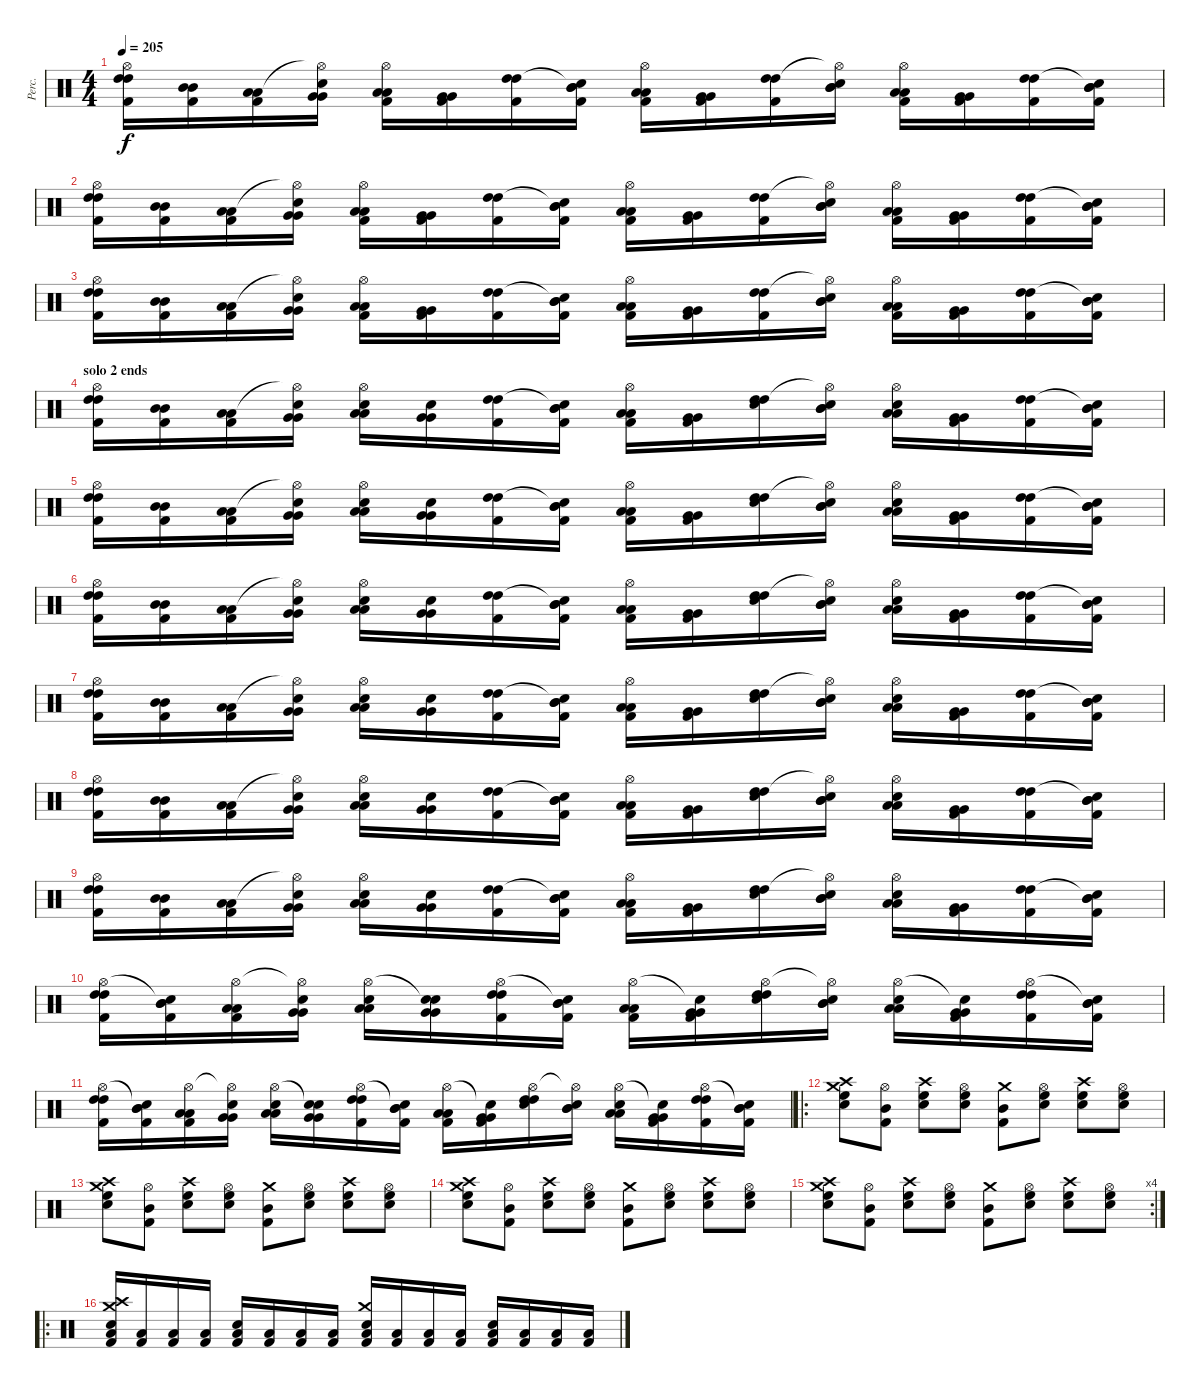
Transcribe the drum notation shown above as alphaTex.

\track ("Perc." "Perc.") {instrument percussion}
\staff {score}
\articulation defaults
\ts (4 4)
\tempo 205
\clef neutral
\ks c
("Hi-Hat (open)" "High Tom (hit)" "High Tom (hit)" "Kick (hit) 2").16{dy f} ("Mid Tom (hit)" "Mid Tom (hit)" "Kick (hit) 2").16 ("Low Tom (hit)" "Low Tom (hit)" "Kick (hit) 2").16 ("Hi-Hat (open)"{t} "Very Low Tom (hit)" "Very Low Tom (hit)" "Snare (hit) 2").16 ("Hi-Hat (open)" "Low Tom (hit)" "Low Tom (hit)" "Kick (hit) 2").16 ("Very Low Tom (hit)" "Very Low Tom (hit)" "Kick (hit) 2").16 ("High Tom (hit)" "High Tom (hit)" "Kick (hit) 2").16 ("Snare (hit)"{t} "Mid Tom (hit)" "Mid Tom (hit)" "Kick (hit) 2").16 ("Hi-Hat (open)" "Low Tom (hit)" "Low Tom (hit)" "Kick (hit) 2").16 ("Very Low Tom (hit)" "Very Low Tom (hit)" "Kick (hit) 2").16 ("High Tom (hit)" "High Tom (hit)" "Kick (hit) 2").16 ("Hi-Hat (open)"{t} "Mid Tom (hit)" "Mid Tom (hit)" "Snare (hit) 2").16 ("Hi-Hat (open)" "Low Tom (hit)" "Low Tom (hit)" "Kick (hit) 2").16 ("Very Low Tom (hit)" "Very Low Tom (hit)" "Kick (hit) 2").16 ("High Tom (hit)" "High Tom (hit)" "Kick (hit) 2").16 ("Snare (hit)"{t} "Mid Tom (hit)" "Mid Tom (hit)" "Kick (hit) 2").16 |
("Hi-Hat (open)" "High Tom (hit)" "High Tom (hit)" "Kick (hit) 2").16 ("Mid Tom (hit)" "Mid Tom (hit)" "Kick (hit) 2").16 ("Low Tom (hit)" "Low Tom (hit)" "Kick (hit) 2").16 ("Hi-Hat (open)"{t} "Very Low Tom (hit)" "Very Low Tom (hit)" "Snare (hit) 2").16 ("Hi-Hat (open)" "Low Tom (hit)" "Low Tom (hit)" "Kick (hit) 2").16 ("Very Low Tom (hit)" "Very Low Tom (hit)" "Kick (hit) 2").16 ("High Tom (hit)" "High Tom (hit)" "Kick (hit) 2").16 ("Snare (hit)"{t} "Mid Tom (hit)" "Mid Tom (hit)" "Kick (hit) 2").16 ("Hi-Hat (open)" "Low Tom (hit)" "Low Tom (hit)" "Kick (hit) 2").16 ("Very Low Tom (hit)" "Very Low Tom (hit)" "Kick (hit) 2").16 ("High Tom (hit)" "High Tom (hit)" "Kick (hit) 2").16 ("Hi-Hat (open)"{t} "Mid Tom (hit)" "Mid Tom (hit)" "Snare (hit) 2").16 ("Hi-Hat (open)" "Low Tom (hit)" "Low Tom (hit)" "Kick (hit) 2").16 ("Very Low Tom (hit)" "Very Low Tom (hit)" "Kick (hit) 2").16 ("High Tom (hit)" "High Tom (hit)" "Kick (hit) 2").16 ("Snare (hit)"{t} "Mid Tom (hit)" "Mid Tom (hit)" "Kick (hit) 2").16 |
("Hi-Hat (open)" "High Tom (hit)" "High Tom (hit)" "Kick (hit) 2").16 ("Mid Tom (hit)" "Mid Tom (hit)" "Kick (hit) 2").16 ("Low Tom (hit)" "Low Tom (hit)" "Kick (hit) 2").16 ("Hi-Hat (open)"{t} "Very Low Tom (hit)" "Very Low Tom (hit)" "Snare (hit) 2").16 ("Hi-Hat (open)" "Low Tom (hit)" "Low Tom (hit)" "Kick (hit) 2").16 ("Very Low Tom (hit)" "Very Low Tom (hit)" "Kick (hit) 2").16 ("High Tom (hit)" "High Tom (hit)" "Kick (hit) 2").16 ("Snare (hit)"{t} "Mid Tom (hit)" "Mid Tom (hit)" "Kick (hit) 2").16 ("Hi-Hat (open)" "Low Tom (hit)" "Low Tom (hit)" "Kick (hit) 2").16 ("Very Low Tom (hit)" "Very Low Tom (hit)" "Kick (hit) 2").16 ("High Tom (hit)" "High Tom (hit)" "Kick (hit) 2").16 ("Hi-Hat (open)"{t} "Mid Tom (hit)" "Mid Tom (hit)" "Snare (hit) 2").16 ("Hi-Hat (open)" "Low Tom (hit)" "Low Tom (hit)" "Kick (hit) 2").16 ("Very Low Tom (hit)" "Very Low Tom (hit)" "Kick (hit) 2").16 ("High Tom (hit)" "High Tom (hit)" "Kick (hit) 2").16 ("Snare (hit)"{t} "Mid Tom (hit)" "Mid Tom (hit)" "Kick (hit) 2").16 |
\section ("" "solo 2 ends")
("Hi-Hat (open)" "High Tom (hit)" "High Tom (hit)" "Kick (hit) 2").16 ("Mid Tom (hit)" "Mid Tom (hit)" "Kick (hit) 2").16 ("Low Tom (hit)" "Low Tom (hit)" "Kick (hit) 2").16 ("Hi-Hat (open)"{t} "Very Low Tom (hit)" "Very Low Tom (hit)" "Snare (hit) 2").16 ("Hi-Hat (open)" "Low Tom (hit)" "Low Tom (hit)" "Snare (hit) 2").16 ("Very Low Tom (hit)" "Very Low Tom (hit)" "Snare (hit) 2").16 ("High Tom (hit)" "High Tom (hit)" "Kick (hit) 2").16 ("Snare (hit)"{t} "Mid Tom (hit)" "Mid Tom (hit)" "Kick (hit) 2").16 ("Hi-Hat (open)" "Low Tom (hit)" "Low Tom (hit)" "Kick (hit) 2").16 ("Very Low Tom (hit)" "Very Low Tom (hit)" "Kick (hit) 2").16 ("High Tom (hit)" "High Tom (hit)" "Snare (hit) 2").16 ("Hi-Hat (open)"{t} "Mid Tom (hit)" "Mid Tom (hit)" "Snare (hit) 2").16 ("Hi-Hat (open)" "Low Tom (hit)" "Low Tom (hit)" "Snare (hit) 2").16 ("Very Low Tom (hit)" "Very Low Tom (hit)" "Kick (hit) 2").16 ("High Tom (hit)" "High Tom (hit)" "Kick (hit) 2").16 ("Snare (hit)"{t} "Mid Tom (hit)" "Mid Tom (hit)" "Kick (hit) 2").16 |
("Hi-Hat (open)" "High Tom (hit)" "High Tom (hit)" "Kick (hit) 2").16 ("Mid Tom (hit)" "Mid Tom (hit)" "Kick (hit) 2").16 ("Low Tom (hit)" "Low Tom (hit)" "Kick (hit) 2").16 ("Hi-Hat (open)"{t} "Very Low Tom (hit)" "Very Low Tom (hit)" "Snare (hit) 2").16 ("Hi-Hat (open)" "Low Tom (hit)" "Low Tom (hit)" "Snare (hit) 2").16 ("Very Low Tom (hit)" "Very Low Tom (hit)" "Snare (hit) 2").16 ("High Tom (hit)" "High Tom (hit)" "Kick (hit) 2").16 ("Snare (hit)"{t} "Mid Tom (hit)" "Mid Tom (hit)" "Kick (hit) 2").16 ("Hi-Hat (open)" "Low Tom (hit)" "Low Tom (hit)" "Kick (hit) 2").16 ("Very Low Tom (hit)" "Very Low Tom (hit)" "Kick (hit) 2").16 ("High Tom (hit)" "High Tom (hit)" "Snare (hit) 2").16 ("Hi-Hat (open)"{t} "Mid Tom (hit)" "Mid Tom (hit)" "Snare (hit) 2").16 ("Hi-Hat (open)" "Low Tom (hit)" "Low Tom (hit)" "Snare (hit) 2").16 ("Very Low Tom (hit)" "Very Low Tom (hit)" "Kick (hit) 2").16 ("High Tom (hit)" "High Tom (hit)" "Kick (hit) 2").16 ("Snare (hit)"{t} "Mid Tom (hit)" "Mid Tom (hit)" "Kick (hit) 2").16 |
("Hi-Hat (open)" "High Tom (hit)" "High Tom (hit)" "Kick (hit) 2").16 ("Mid Tom (hit)" "Mid Tom (hit)" "Kick (hit) 2").16 ("Low Tom (hit)" "Low Tom (hit)" "Kick (hit) 2").16 ("Hi-Hat (open)"{t} "Very Low Tom (hit)" "Very Low Tom (hit)" "Snare (hit) 2").16 ("Hi-Hat (open)" "Low Tom (hit)" "Low Tom (hit)" "Snare (hit) 2").16 ("Very Low Tom (hit)" "Very Low Tom (hit)" "Snare (hit) 2").16 ("High Tom (hit)" "High Tom (hit)" "Kick (hit) 2").16 ("Snare (hit)"{t} "Mid Tom (hit)" "Mid Tom (hit)" "Kick (hit) 2").16 ("Hi-Hat (open)" "Low Tom (hit)" "Low Tom (hit)" "Kick (hit) 2").16 ("Very Low Tom (hit)" "Very Low Tom (hit)" "Kick (hit) 2").16 ("High Tom (hit)" "High Tom (hit)" "Snare (hit) 2").16 ("Hi-Hat (open)"{t} "Mid Tom (hit)" "Mid Tom (hit)" "Snare (hit) 2").16 ("Hi-Hat (open)" "Low Tom (hit)" "Low Tom (hit)" "Snare (hit) 2").16 ("Very Low Tom (hit)" "Very Low Tom (hit)" "Kick (hit) 2").16 ("High Tom (hit)" "High Tom (hit)" "Kick (hit) 2").16 ("Snare (hit)"{t} "Mid Tom (hit)" "Mid Tom (hit)" "Kick (hit) 2").16 |
("Hi-Hat (open)" "High Tom (hit)" "High Tom (hit)" "Kick (hit) 2").16 ("Mid Tom (hit)" "Mid Tom (hit)" "Kick (hit) 2").16 ("Low Tom (hit)" "Low Tom (hit)" "Kick (hit) 2").16 ("Hi-Hat (open)"{t} "Very Low Tom (hit)" "Very Low Tom (hit)" "Snare (hit) 2").16 ("Hi-Hat (open)" "Low Tom (hit)" "Low Tom (hit)" "Snare (hit) 2").16 ("Very Low Tom (hit)" "Very Low Tom (hit)" "Snare (hit) 2").16 ("High Tom (hit)" "High Tom (hit)" "Kick (hit) 2").16 ("Snare (hit)"{t} "Mid Tom (hit)" "Mid Tom (hit)" "Kick (hit) 2").16 ("Hi-Hat (open)" "Low Tom (hit)" "Low Tom (hit)" "Kick (hit) 2").16 ("Very Low Tom (hit)" "Very Low Tom (hit)" "Kick (hit) 2").16 ("High Tom (hit)" "High Tom (hit)" "Snare (hit) 2").16 ("Hi-Hat (open)"{t} "Mid Tom (hit)" "Mid Tom (hit)" "Snare (hit) 2").16 ("Hi-Hat (open)" "Low Tom (hit)" "Low Tom (hit)" "Snare (hit) 2").16 ("Very Low Tom (hit)" "Very Low Tom (hit)" "Kick (hit) 2").16 ("High Tom (hit)" "High Tom (hit)" "Kick (hit) 2").16 ("Snare (hit)"{t} "Mid Tom (hit)" "Mid Tom (hit)" "Kick (hit) 2").16 |
("Hi-Hat (open)" "High Tom (hit)" "High Tom (hit)" "Kick (hit) 2").16 ("Mid Tom (hit)" "Mid Tom (hit)" "Kick (hit) 2").16 ("Low Tom (hit)" "Low Tom (hit)" "Kick (hit) 2").16 ("Hi-Hat (open)"{t} "Very Low Tom (hit)" "Very Low Tom (hit)" "Snare (hit) 2").16 ("Hi-Hat (open)" "Low Tom (hit)" "Low Tom (hit)" "Snare (hit) 2").16 ("Very Low Tom (hit)" "Very Low Tom (hit)" "Snare (hit) 2").16 ("High Tom (hit)" "High Tom (hit)" "Kick (hit) 2").16 ("Snare (hit)"{t} "Mid Tom (hit)" "Mid Tom (hit)" "Kick (hit) 2").16 ("Hi-Hat (open)" "Low Tom (hit)" "Low Tom (hit)" "Kick (hit) 2").16 ("Very Low Tom (hit)" "Very Low Tom (hit)" "Kick (hit) 2").16 ("High Tom (hit)" "High Tom (hit)" "Snare (hit) 2").16 ("Hi-Hat (open)"{t} "Mid Tom (hit)" "Mid Tom (hit)" "Snare (hit) 2").16 ("Hi-Hat (open)" "Low Tom (hit)" "Low Tom (hit)" "Snare (hit) 2").16 ("Very Low Tom (hit)" "Very Low Tom (hit)" "Kick (hit) 2").16 ("High Tom (hit)" "High Tom (hit)" "Kick (hit) 2").16 ("Snare (hit)"{t} "Mid Tom (hit)" "Mid Tom (hit)" "Kick (hit) 2").16 |
("Hi-Hat (open)" "High Tom (hit)" "High Tom (hit)" "Kick (hit) 2").16 ("Mid Tom (hit)" "Mid Tom (hit)" "Kick (hit) 2").16 ("Low Tom (hit)" "Low Tom (hit)" "Kick (hit) 2").16 ("Hi-Hat (open)"{t} "Very Low Tom (hit)" "Very Low Tom (hit)" "Snare (hit) 2").16 ("Hi-Hat (open)" "Low Tom (hit)" "Low Tom (hit)" "Snare (hit) 2").16 ("Very Low Tom (hit)" "Very Low Tom (hit)" "Snare (hit) 2").16 ("High Tom (hit)" "High Tom (hit)" "Kick (hit) 2").16 ("Snare (hit)"{t} "Mid Tom (hit)" "Mid Tom (hit)" "Kick (hit) 2").16 ("Hi-Hat (open)" "Low Tom (hit)" "Low Tom (hit)" "Kick (hit) 2").16 ("Very Low Tom (hit)" "Very Low Tom (hit)" "Kick (hit) 2").16 ("High Tom (hit)" "High Tom (hit)" "Snare (hit) 2").16 ("Hi-Hat (open)"{t} "Mid Tom (hit)" "Mid Tom (hit)" "Snare (hit) 2").16 ("Hi-Hat (open)" "Low Tom (hit)" "Low Tom (hit)" "Snare (hit) 2").16 ("Very Low Tom (hit)" "Very Low Tom (hit)" "Kick (hit) 2").16 ("High Tom (hit)" "High Tom (hit)" "Kick (hit) 2").16 ("Snare (hit)"{t} "Mid Tom (hit)" "Mid Tom (hit)" "Kick (hit) 2").16 |
("Hi-Hat (open)" "High Tom (hit)" "High Tom (hit)" "Kick (hit) 2").16 ("Snare (hit)"{t} "Mid Tom (hit)" "Mid Tom (hit)" "Kick (hit) 2").16 ("Hi-Hat (open)" "Low Tom (hit)" "Low Tom (hit)" "Kick (hit) 2").16 ("Hi-Hat (open)"{t} "Very Low Tom (hit)" "Very Low Tom (hit)" "Snare (hit) 2").16 ("Hi-Hat (open)" "Low Tom (hit)" "Low Tom (hit)" "Snare (hit) 2").16 ("Snare (hit)"{t} "Very Low Tom (hit)" "Very Low Tom (hit)" "Snare (hit) 2").16 ("Hi-Hat (open)" "High Tom (hit)" "High Tom (hit)" "Kick (hit) 2").16 ("Snare (hit)"{t} "Mid Tom (hit)" "Mid Tom (hit)" "Kick (hit) 2").16 ("Hi-Hat (open)" "Low Tom (hit)" "Low Tom (hit)" "Kick (hit) 2").16 ("Snare (hit)"{t} "Very Low Tom (hit)" "Very Low Tom (hit)" "Kick (hit) 2").16 ("Hi-Hat (open)" "High Tom (hit)" "High Tom (hit)" "Snare (hit) 2").16 ("Hi-Hat (open)"{t} "Mid Tom (hit)" "Mid Tom (hit)" "Snare (hit) 2").16 ("Hi-Hat (open)" "Low Tom (hit)" "Low Tom (hit)" "Snare (hit) 2").16 ("Snare (hit)"{t} "Very Low Tom (hit)" "Very Low Tom (hit)" "Kick (hit) 2").16 ("Hi-Hat (open)" "High Tom (hit)" "High Tom (hit)" "Kick (hit) 2").16 ("Snare (hit)"{t} "Mid Tom (hit)" "Mid Tom (hit)" "Kick (hit) 2").16 |
("Hi-Hat (open)" "High Tom (hit)" "High Tom (hit)" "Kick (hit) 2").16 ("Snare (hit)"{t} "Mid Tom (hit)" "Mid Tom (hit)" "Kick (hit) 2").16 ("Hi-Hat (open)" "Low Tom (hit)" "Low Tom (hit)" "Kick (hit) 2").16 ("Hi-Hat (open)"{t} "Very Low Tom (hit)" "Very Low Tom (hit)" "Snare (hit) 2").16 ("Hi-Hat (open)" "Low Tom (hit)" "Low Tom (hit)" "Snare (hit) 2").16 ("Snare (hit)"{t} "Very Low Tom (hit)" "Very Low Tom (hit)" "Snare (hit) 2").16 ("Hi-Hat (open)" "High Tom (hit)" "High Tom (hit)" "Kick (hit) 2").16 ("Snare (hit)"{t} "Mid Tom (hit)" "Mid Tom (hit)" "Kick (hit) 2").16 ("Hi-Hat (open)" "Low Tom (hit)" "Low Tom (hit)" "Kick (hit) 2").16 ("Snare (hit)"{t} "Very Low Tom (hit)" "Very Low Tom (hit)" "Kick (hit) 2").16 ("Hi-Hat (open)" "High Tom (hit)" "High Tom (hit)" "Snare (hit) 2").16 ("Hi-Hat (open)"{t} "Mid Tom (hit)" "Mid Tom (hit)" "Snare (hit) 2").16 ("Hi-Hat (open)" "Low Tom (hit)" "Low Tom (hit)" "Snare (hit) 2").16 ("Snare (hit)"{t} "Very Low Tom (hit)" "Very Low Tom (hit)" "Kick (hit) 2").16 ("Hi-Hat (open)" "High Tom (hit)" "High Tom (hit)" "Kick (hit) 2").16 ("Snare (hit)"{t} "Mid Tom (hit)" "Mid Tom (hit)" "Kick (hit) 2").16 |
\ro
("Crash high (hit)" "Crash medium (hit)" "High Floor Tom (hit)" "Snare (hit) 2").8 ("Hi-Hat (open)" "Mid Tom (hit)" "Kick (hit) 2").8 ("Crash high (hit)" "High Floor Tom (hit)" "Snare (hit) 2").8 ("Hi-Hat (open)" "High Floor Tom (hit)" "Snare (hit) 2").8 ("Crash medium (hit)" "Mid Tom (hit)" "Kick (hit) 2").8 ("Hi-Hat (open)" "High Floor Tom (hit)" "Snare (hit) 2").8 ("Crash high (hit)" "High Floor Tom (hit)" "Snare (hit) 2").8 ("Hi-Hat (open)" "High Floor Tom (hit)" "Snare (hit) 2").8 |
("Crash high (hit)" "Crash medium (hit)" "High Floor Tom (hit)" "Snare (hit) 2").8 ("Hi-Hat (open)" "Mid Tom (hit)" "Kick (hit) 2").8 ("Crash high (hit)" "High Floor Tom (hit)" "Snare (hit) 2").8 ("Hi-Hat (open)" "High Floor Tom (hit)" "Snare (hit) 2").8 ("Crash medium (hit)" "Mid Tom (hit)" "Kick (hit) 2").8 ("Hi-Hat (open)" "High Floor Tom (hit)" "Snare (hit) 2").8 ("Crash high (hit)" "High Floor Tom (hit)" "Snare (hit) 2").8 ("Hi-Hat (open)" "High Floor Tom (hit)" "Snare (hit) 2").8 |
("Crash high (hit)" "Crash medium (hit)" "High Floor Tom (hit)" "Snare (hit) 2").8 ("Hi-Hat (open)" "Mid Tom (hit)" "Kick (hit) 2").8 ("Crash high (hit)" "High Floor Tom (hit)" "Snare (hit) 2").8 ("Hi-Hat (open)" "High Floor Tom (hit)" "Snare (hit) 2").8 ("Crash medium (hit)" "Mid Tom (hit)" "Kick (hit) 2").8 ("Hi-Hat (open)" "High Floor Tom (hit)" "Snare (hit) 2").8 ("Crash high (hit)" "High Floor Tom (hit)" "Snare (hit) 2").8 ("Hi-Hat (open)" "High Floor Tom (hit)" "Snare (hit) 2").8 |
\rc 4
("Crash high (hit)" "Crash medium (hit)" "High Floor Tom (hit)" "Snare (hit) 2").8 ("Hi-Hat (open)" "Mid Tom (hit)" "Kick (hit) 2").8 ("Crash high (hit)" "High Floor Tom (hit)" "Snare (hit) 2").8 ("Hi-Hat (open)" "High Floor Tom (hit)" "Snare (hit) 2").8 ("Crash medium (hit)" "Mid Tom (hit)" "Kick (hit) 2").8 ("Hi-Hat (open)" "High Floor Tom (hit)" "Snare (hit) 2").8 ("Crash high (hit)" "High Floor Tom (hit)" "Snare (hit) 2").8 ("Hi-Hat (open)" "High Floor Tom (hit)" "Snare (hit) 2").8 |
\ro
("Crash high (hit)" "Crash medium (hit)" "Snare (hit) 2" "Low Floor Tom (hit)" "Kick (hit) 2").16 ("Low Floor Tom (hit)" "Kick (hit) 2").16 ("Low Floor Tom (hit)" "Kick (hit) 2").16 ("Low Floor Tom (hit)" "Kick (hit) 2").16 ("Snare (hit) 2" "Low Floor Tom (hit)" "Kick (hit) 2").16 ("Low Floor Tom (hit)" "Kick (hit) 2").16 ("Low Floor Tom (hit)" "Kick (hit) 2").16 ("Low Floor Tom (hit)" "Kick (hit) 2").16 ("Crash medium (hit)" "Snare (hit) 2" "Low Floor Tom (hit)" "Kick (hit) 2").16 ("Low Floor Tom (hit)" "Kick (hit) 2").16 ("Low Floor Tom (hit)" "Kick (hit) 2").16 ("Low Floor Tom (hit)" "Kick (hit) 2").16 ("Snare (hit) 2" "Low Floor Tom (hit)" "Kick (hit) 2").16 ("Low Floor Tom (hit)" "Kick (hit) 2").16 ("Low Floor Tom (hit)" "Kick (hit) 2").16 ("Low Floor Tom (hit)" "Kick (hit) 2").16
